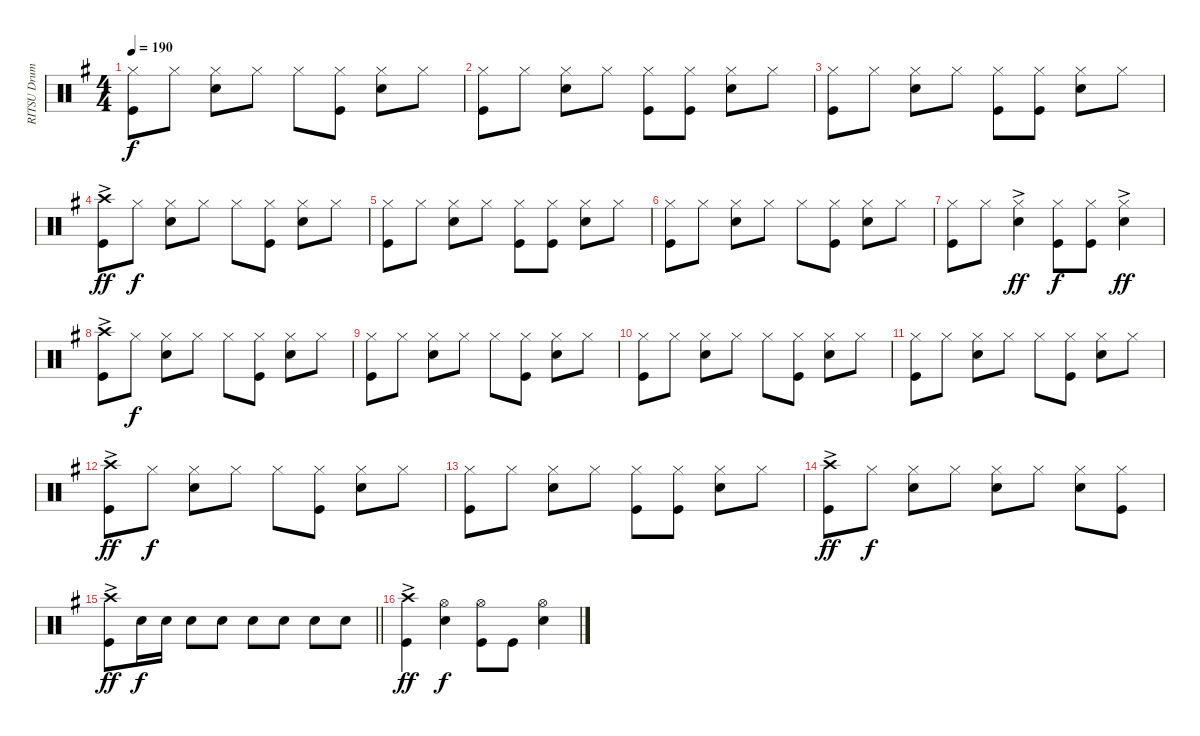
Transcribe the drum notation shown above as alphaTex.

\track ("RITSU Drums" "RITSU Drum") {instrument percussion}
\staff {score}
\articulation defaults
\ts (4 4)
\tempo 190
\clef neutral
\ks g
("Hi-Hat (closed)" "Kick (hit)").8{dy f} "Hi-Hat (closed)".8 ("Hi-Hat (closed)" "Snare (hit) 2").8 "Hi-Hat (closed)".8 "Hi-Hat (closed)".8 ("Hi-Hat (closed)" "Kick (hit)").8 ("Hi-Hat (closed)" "Snare (hit) 2").8 "Hi-Hat (closed)".8 |
("Hi-Hat (closed)" "Kick (hit)").8 "Hi-Hat (closed)".8 ("Hi-Hat (closed)" "Snare (hit) 2").8 "Hi-Hat (closed)".8 ("Hi-Hat (closed)" "Kick (hit)").8 ("Kick (hit)" "Hi-Hat (closed)").8 ("Snare (hit) 2" "Hi-Hat (closed)").8 "Hi-Hat (closed)".8 |
("Kick (hit)" "Hi-Hat (closed)").8 "Hi-Hat (closed)".8 ("Snare (hit) 2" "Hi-Hat (closed)").8 "Hi-Hat (closed)".8 ("Hi-Hat (closed)" "Kick (hit)").8 ("Kick (hit)" "Hi-Hat (closed)").8 ("Hi-Hat (closed)" "Snare (hit) 2").8 "Hi-Hat (closed)".8 |
("Crash high (hit)"{ac} "Kick (hit)").8{dy ff} "Hi-Hat (closed)".8{dy f} ("Hi-Hat (closed)" "Snare (hit) 2").8 "Hi-Hat (closed)".8 "Hi-Hat (closed)".8 ("Hi-Hat (closed)" "Kick (hit)").8 ("Hi-Hat (closed)" "Snare (hit) 2").8 "Hi-Hat (closed)".8 |
("Hi-Hat (closed)" "Kick (hit)").8 "Hi-Hat (closed)".8 ("Hi-Hat (closed)" "Snare (hit) 2").8 "Hi-Hat (closed)".8 ("Hi-Hat (closed)" "Kick (hit)").8 ("Kick (hit)" "Hi-Hat (closed)").8 ("Hi-Hat (closed)" "Snare (hit) 2").8 "Hi-Hat (closed)".8 |
("Hi-Hat (closed)" "Kick (hit)").8 "Hi-Hat (closed)".8 ("Hi-Hat (closed)" "Snare (hit) 2").8 "Hi-Hat (closed)".8 "Hi-Hat (closed)".8 ("Hi-Hat (closed)" "Kick (hit)").8 ("Snare (hit) 2" "Hi-Hat (closed)").8 "Hi-Hat (closed)".8 |
("Hi-Hat (closed)" "Kick (hit)").8 "Hi-Hat (closed)".8 ("Hi-Hat (closed)"{ac} "Snare (hit) 2").4{dy ff} ("Hi-Hat (closed)" "Kick (hit)").8{dy f} ("Kick (hit)" "Hi-Hat (closed)").8 ("Snare (hit) 2" "Hi-Hat (closed)"{ac}).4{dy ff} |
("Crash high (hit)"{ac} "Kick (hit)").8 "Hi-Hat (closed)".8{dy f} ("Snare (hit) 2" "Hi-Hat (closed)").8 "Hi-Hat (closed)".8 "Hi-Hat (closed)".8 ("Hi-Hat (closed)" "Kick (hit)").8 ("Snare (hit) 2" "Hi-Hat (closed)").8 "Hi-Hat (closed)".8 |
("Hi-Hat (closed)" "Kick (hit)").8 "Hi-Hat (closed)".8 ("Snare (hit) 2" "Hi-Hat (closed)").8 "Hi-Hat (closed)".8 "Hi-Hat (closed)".8 ("Hi-Hat (closed)" "Kick (hit)").8 ("Snare (hit) 2" "Hi-Hat (closed)").8 "Hi-Hat (closed)".8 |
("Hi-Hat (closed)" "Kick (hit)").8 "Hi-Hat (closed)".8 ("Snare (hit) 2" "Hi-Hat (closed)").8 "Hi-Hat (closed)".8 "Hi-Hat (closed)".8 ("Hi-Hat (closed)" "Kick (hit)").8 ("Snare (hit) 2" "Hi-Hat (closed)").8 "Hi-Hat (closed)".8 |
("Hi-Hat (closed)" "Kick (hit)").8 "Hi-Hat (closed)".8 ("Snare (hit) 2" "Hi-Hat (closed)").8 "Hi-Hat (closed)".8 "Hi-Hat (closed)".8 ("Hi-Hat (closed)" "Kick (hit)").8 ("Snare (hit) 2" "Hi-Hat (closed)").8 "Hi-Hat (closed)".8 |
("Crash high (hit)"{ac} "Kick (hit)").8{dy ff} "Hi-Hat (closed)".8{dy f} ("Snare (hit) 2" "Hi-Hat (closed)").8 "Hi-Hat (closed)".8 "Hi-Hat (closed)".8 ("Hi-Hat (closed)" "Kick (hit)").8 ("Snare (hit) 2" "Hi-Hat (closed)").8 "Hi-Hat (closed)".8 |
("Hi-Hat (closed)" "Kick (hit)").8 "Hi-Hat (closed)".8 ("Hi-Hat (closed)" "Snare (hit) 2").8 "Hi-Hat (closed)".8 ("Hi-Hat (closed)" "Kick (hit)").8 ("Hi-Hat (closed)" "Kick (hit)").8 ("Snare (hit) 2" "Hi-Hat (closed)").8 "Hi-Hat (closed)".8 |
("Crash high (hit)"{ac} "Kick (hit)").8{dy ff} "Hi-Hat (closed)".8{dy f} ("Hi-Hat (closed)" "Snare (hit) 2").8 "Hi-Hat (closed)".8 ("Hi-Hat (closed)" "Snare (hit) 2").8 "Hi-Hat (closed)".8 ("Hi-Hat (closed)" "Snare (hit) 2").8 ("Hi-Hat (closed)" "Kick (hit)").8 |
\barLineRight lightlight
("Crash high (hit)"{ac} "Kick (hit)").8{dy ff} "Snare (hit) 2".16{dy f} "Snare (hit) 2".16 "Snare (hit) 2".8 "Snare (hit) 2".8 "Snare (hit) 2".8 "Snare (hit) 2".8 "Snare (hit) 2".8 "Snare (hit) 2".8 |
("Kick (hit)" "Crash high (hit)"{ac}).4{dy ff} ("Hi-Hat (open)" "Snare (hit) 2").4{dy f} ("Kick (hit)" "Hi-Hat (open)").8 "Kick (hit)".8 ("Snare (hit) 2" "Hi-Hat (open)").4
